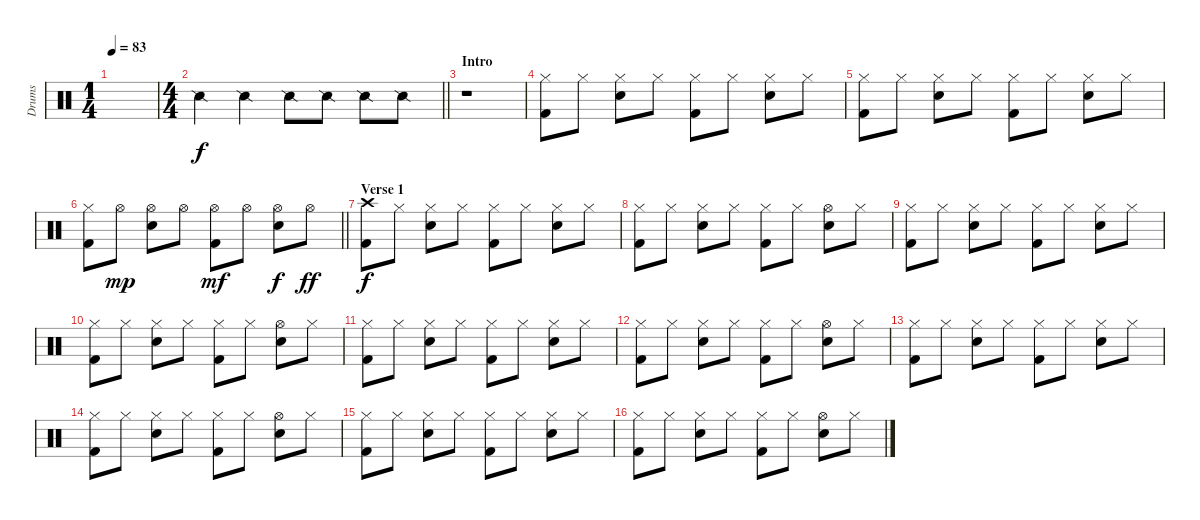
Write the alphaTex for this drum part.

\track ("Drums" "Drums") {instrument percussion}
\staff {score}
\articulation defaults
\ts (1 4)
\tempo 83
\clef neutral
\ks c
|
\ts (4 4)
\barLineRight lightlight "Snare (side stick) 2".4 "Snare (side stick) 2".4 "Snare (side stick) 2".8 "Snare (side stick) 2".8 "Snare (side stick) 2".8 "Snare (side stick) 2".8
|
\section ("" "Intro")
r.1 |
("Hi-Hat (closed)" "Kick (hit) 2").8 "Hi-Hat (closed)".8 ("Hi-Hat (closed)" "Electric Snare (hit)").8 "Hi-Hat (closed)".8 ("Hi-Hat (closed)" "Kick (hit) 2").8 "Hi-Hat (closed)".8 ("Hi-Hat (closed)" "Electric Snare (hit)").8 "Hi-Hat (closed)".8 |
("Hi-Hat (closed)" "Kick (hit) 2").8 "Hi-Hat (closed)".8 ("Hi-Hat (closed)" "Electric Snare (hit)").8 "Hi-Hat (closed)".8 ("Hi-Hat (closed)" "Kick (hit) 2").8 "Hi-Hat (closed)".8 ("Hi-Hat (closed)" "Electric Snare (hit)").8 "Hi-Hat (closed)".8 |
\barLineRight lightlight
("Hi-Hat (closed)" "Kick (hit) 2").8 "Hi-Hat (open)".8{dy mp} ("Hi-Hat (open)" "Electric Snare (hit)").8 "Hi-Hat (open)".8 ("Hi-Hat (open)" "Kick (hit) 2").8{dy mf} "Hi-Hat (open)".8 ("Hi-Hat (open)" "Electric Snare (hit)").8{dy f} "Hi-Hat (open)".8{dy ff} |
\section ("" "Verse 1")
("Crash high (hit)" "Kick (hit) 2").8{dy f} "Hi-Hat (closed)".8 ("Hi-Hat (closed)" "Electric Snare (hit)").8 "Hi-Hat (closed)".8 ("Hi-Hat (closed)" "Kick (hit) 2").8 "Hi-Hat (closed)".8 ("Hi-Hat (closed)" "Electric Snare (hit)").8 "Hi-Hat (closed)".8 |
("Hi-Hat (closed)" "Kick (hit) 2").8 "Hi-Hat (closed)".8 ("Hi-Hat (closed)" "Electric Snare (hit)").8 "Hi-Hat (closed)".8 ("Hi-Hat (closed)" "Kick (hit) 2").8 "Hi-Hat (closed)".8 ("Hi-Hat (open)" "Electric Snare (hit)").8 "Hi-Hat (closed)".8 |
("Hi-Hat (closed)" "Kick (hit) 2").8 "Hi-Hat (closed)".8 ("Hi-Hat (closed)" "Electric Snare (hit)").8 "Hi-Hat (closed)".8 ("Hi-Hat (closed)" "Kick (hit) 2").8 "Hi-Hat (closed)".8 ("Hi-Hat (closed)" "Electric Snare (hit)").8 "Hi-Hat (closed)".8 |
("Hi-Hat (closed)" "Kick (hit) 2").8 "Hi-Hat (closed)".8 ("Hi-Hat (closed)" "Electric Snare (hit)").8 "Hi-Hat (closed)".8 ("Hi-Hat (closed)" "Kick (hit) 2").8 "Hi-Hat (closed)".8 ("Hi-Hat (open)" "Electric Snare (hit)").8 "Hi-Hat (closed)".8 |
("Hi-Hat (closed)" "Kick (hit) 2").8 "Hi-Hat (closed)".8 ("Hi-Hat (closed)" "Electric Snare (hit)").8 "Hi-Hat (closed)".8 ("Hi-Hat (closed)" "Kick (hit) 2").8 "Hi-Hat (closed)".8 ("Hi-Hat (closed)" "Electric Snare (hit)").8 "Hi-Hat (closed)".8 |
("Hi-Hat (closed)" "Kick (hit) 2").8 "Hi-Hat (closed)".8 ("Hi-Hat (closed)" "Electric Snare (hit)").8 "Hi-Hat (closed)".8 ("Hi-Hat (closed)" "Kick (hit) 2").8 "Hi-Hat (closed)".8 ("Hi-Hat (open)" "Electric Snare (hit)").8 "Hi-Hat (closed)".8 |
("Hi-Hat (closed)" "Kick (hit) 2").8 "Hi-Hat (closed)".8 ("Hi-Hat (closed)" "Electric Snare (hit)").8 "Hi-Hat (closed)".8 ("Hi-Hat (closed)" "Kick (hit) 2").8 "Hi-Hat (closed)".8 ("Hi-Hat (closed)" "Electric Snare (hit)").8 "Hi-Hat (closed)".8 |
("Hi-Hat (closed)" "Kick (hit) 2").8 "Hi-Hat (closed)".8 ("Hi-Hat (closed)" "Electric Snare (hit)").8 "Hi-Hat (closed)".8 ("Hi-Hat (closed)" "Kick (hit) 2").8 "Hi-Hat (closed)".8 ("Hi-Hat (open)" "Electric Snare (hit)").8 "Hi-Hat (closed)".8 |
("Hi-Hat (closed)" "Kick (hit) 2").8 "Hi-Hat (closed)".8 ("Hi-Hat (closed)" "Electric Snare (hit)").8 "Hi-Hat (closed)".8 ("Hi-Hat (closed)" "Kick (hit) 2").8 "Hi-Hat (closed)".8 ("Hi-Hat (closed)" "Electric Snare (hit)").8 "Hi-Hat (closed)".8 |
("Hi-Hat (closed)" "Kick (hit) 2").8 "Hi-Hat (closed)".8 ("Hi-Hat (closed)" "Electric Snare (hit)").8 "Hi-Hat (closed)".8 ("Hi-Hat (closed)" "Kick (hit) 2").8 "Hi-Hat (closed)".8 ("Hi-Hat (open)" "Electric Snare (hit)").8 "Hi-Hat (closed)".8
